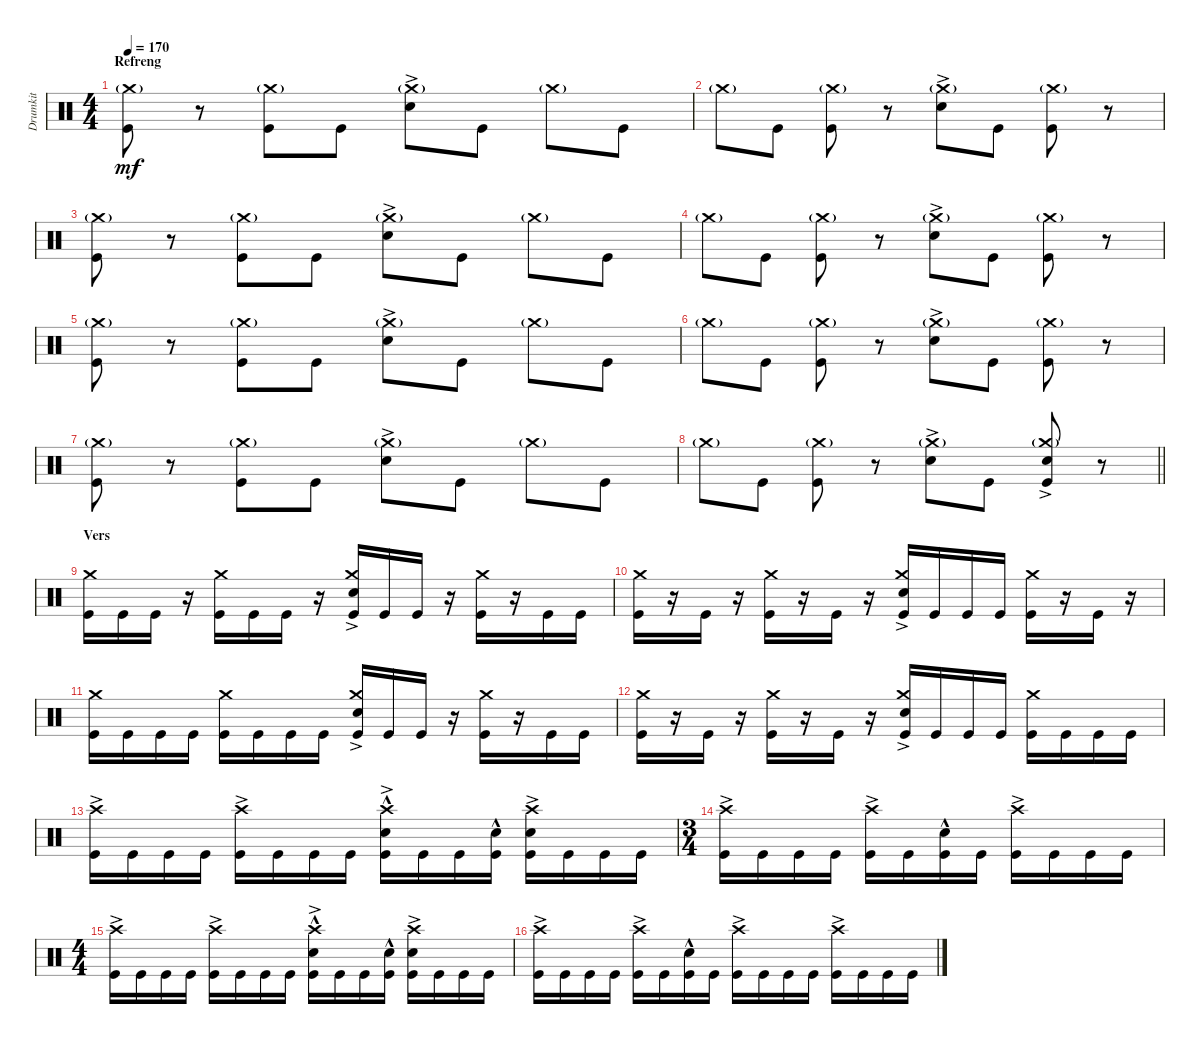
\track ("Drumkit" "Drumkit") {instrument percussion}
\staff {score}
\articulation defaults
\ts (4 4)
\section ("" "Refreng")
\tempo 170
\clef neutral
\ks c
("Kick (hit)" "Crash medium (hit)"{g}).8{dy mf} r.8 ("Kick (hit)" "Crash medium (hit)"{g}).8 "Kick (hit)".8 ("Snare (hit) 2"{ac} "Crash medium (hit)"{g}).8 "Kick (hit)".8 "Crash medium (hit)"{g}.8 "Kick (hit)".8 |
"Crash medium (hit)"{g}.8 "Kick (hit)".8 ("Kick (hit)" "Crash medium (hit)"{g}).8 r.8 ("Snare (hit) 2"{ac} "Crash medium (hit)"{g}).8 "Kick (hit)".8 ("Kick (hit)" "Crash medium (hit)"{g}).8 r.8 |
("Kick (hit)" "Crash medium (hit)"{g}).8 r.8 ("Kick (hit)" "Crash medium (hit)"{g}).8 "Kick (hit)".8 ("Snare (hit) 2"{ac} "Crash medium (hit)"{g}).8 "Kick (hit)".8 "Crash medium (hit)"{g}.8 "Kick (hit)".8 |
"Crash medium (hit)"{g}.8 "Kick (hit)".8 ("Kick (hit)" "Crash medium (hit)"{g}).8 r.8 ("Snare (hit) 2"{ac} "Crash medium (hit)"{g}).8 "Kick (hit)".8 ("Kick (hit)" "Crash medium (hit)"{g}).8 r.8 |
("Kick (hit)" "Crash medium (hit)"{g}).8 r.8 ("Kick (hit)" "Crash medium (hit)"{g}).8 "Kick (hit)".8 ("Snare (hit) 2"{ac} "Crash medium (hit)"{g}).8 "Kick (hit)".8 "Crash medium (hit)"{g}.8 "Kick (hit)".8 |
"Crash medium (hit)"{g}.8 "Kick (hit)".8 ("Kick (hit)" "Crash medium (hit)"{g}).8 r.8 ("Snare (hit) 2"{ac} "Crash medium (hit)"{g}).8 "Kick (hit)".8 ("Kick (hit)" "Crash medium (hit)"{g}).8 r.8 |
("Kick (hit)" "Crash medium (hit)"{g}).8 r.8 ("Kick (hit)" "Crash medium (hit)"{g}).8 "Kick (hit)".8 ("Snare (hit) 2"{ac} "Crash medium (hit)"{g}).8 "Kick (hit)".8 "Crash medium (hit)"{g}.8 "Kick (hit)".8 |
\barLineRight lightlight "Crash medium (hit)"{g}.8 "Kick (hit)".8
("Kick (hit)" "Crash medium (hit)"{g}).8 r.8 ("Snare (hit) 2"{ac} "Crash medium (hit)"{g}).8 "Kick (hit)".8 ("Kick (hit)" "Crash medium (hit)"{g} "Snare (hit) 2"{ac}).8 r.8 |
\section ("" "Vers")
("Kick (hit)" "Crash medium (hit)").16 "Kick (hit)".16 "Kick (hit)".16 r.16 ("Kick (hit)" "Crash medium (hit)").16 "Kick (hit)".16 "Kick (hit)".16 r.16 ("Snare (hit) 2"{ac} "Kick (hit)" "Crash medium (hit)").16 "Kick (hit)".16 "Kick (hit)".16 r.16 ("Kick (hit)" "Crash medium (hit)").16 r.16 "Kick (hit)".16 "Kick (hit)".16 |
("Kick (hit)" "Crash medium (hit)").16 r.16 "Kick (hit)".16 r.16 ("Kick (hit)" "Crash medium (hit)").16 r.16 "Kick (hit)".16 r.16 ("Kick (hit)" "Snare (hit) 2"{ac} "Crash medium (hit)").16 "Kick (hit)".16 "Kick (hit)".16 "Kick (hit)".16 ("Kick (hit)" "Crash medium (hit)").16 r.16 "Kick (hit)".16 r.16 |
("Kick (hit)" "Crash medium (hit)").16 "Kick (hit)".16 "Kick (hit)".16 "Kick (hit)".16 ("Kick (hit)" "Crash medium (hit)").16 "Kick (hit)".16 "Kick (hit)".16 "Kick (hit)".16 ("Snare (hit) 2"{ac} "Kick (hit)" "Crash medium (hit)").16 "Kick (hit)".16 "Kick (hit)".16 r.16 ("Crash medium (hit)" "Kick (hit)").16 r.16 "Kick (hit)".16 "Kick (hit)".16 |
("Kick (hit)" "Crash medium (hit)").16 r.16 "Kick (hit)".16 r.16 ("Kick (hit)" "Crash medium (hit)").16 r.16 "Kick (hit)".16 r.16 ("Snare (hit) 2"{ac} "Crash medium (hit)" "Kick (hit)").16 "Kick (hit)".16 "Kick (hit)".16 "Kick (hit)".16 ("Kick (hit)" "Crash medium (hit)").16 "Kick (hit)".16 "Kick (hit)".16 "Kick (hit)".16 |
("Kick (hit)" "Crash high (hit)"{ac}).16 "Kick (hit)".16 "Kick (hit)".16 "Kick (hit)".16 ("Kick (hit)" "Crash high (hit)"{ac}).16 "Kick (hit)".16 "Kick (hit)".16 "Kick (hit)".16 ("Snare (hit) 2"{hac} "Kick (hit)" "Crash high (hit)"{ac}).16 "Kick (hit)".16 "Kick (hit)".16 ("Kick (hit)" "Snare (hit) 2"{hac}).16 ("Kick (hit)" "Snare (hit) 2"{ac} "Crash high (hit)"{ac}).16 "Kick (hit)".16 "Kick (hit)".16 "Kick (hit)".16 |
\ts (3 4)
("Kick (hit)" "Crash high (hit)"{ac}).16 "Kick (hit)".16 "Kick (hit)".16 "Kick (hit)".16 ("Kick (hit)" "Crash high (hit)"{ac}).16 "Kick (hit)".16 ("Kick (hit)" "Snare (hit) 2"{hac}).16 "Kick (hit)".16 ("Kick (hit)" "Crash high (hit)"{ac}).16 "Kick (hit)".16 "Kick (hit)".16 "Kick (hit)".16 |
\ts (4 4)
("Kick (hit)" "Crash high (hit)"{ac}).16 "Kick (hit)".16 "Kick (hit)".16 "Kick (hit)".16 ("Kick (hit)" "Crash high (hit)"{ac}).16 "Kick (hit)".16 "Kick (hit)".16 "Kick (hit)".16 ("Snare (hit) 2"{hac} "Kick (hit)" "Crash high (hit)"{ac}).16 "Kick (hit)".16 "Kick (hit)".16 ("Kick (hit)" "Snare (hit) 2"{hac}).16 ("Kick (hit)" "Snare (hit) 2"{ac} "Crash high (hit)"{ac}).16 "Kick (hit)".16 "Kick (hit)".16 "Kick (hit)".16 |
("Kick (hit)" "Crash high (hit)"{ac}).16 "Kick (hit)".16 "Kick (hit)".16 "Kick (hit)".16 ("Kick (hit)" "Crash high (hit)"{ac}).16 "Kick (hit)".16 ("Kick (hit)" "Snare (hit) 2"{hac}).16 "Kick (hit)".16 ("Kick (hit)" "Crash high (hit)"{ac}).16 "Kick (hit)".16 "Kick (hit)".16 "Kick (hit)".16 ("Kick (hit)" "Crash high (hit)"{ac}).16 "Kick (hit)".16 "Kick (hit)".16 "Kick (hit)".16
